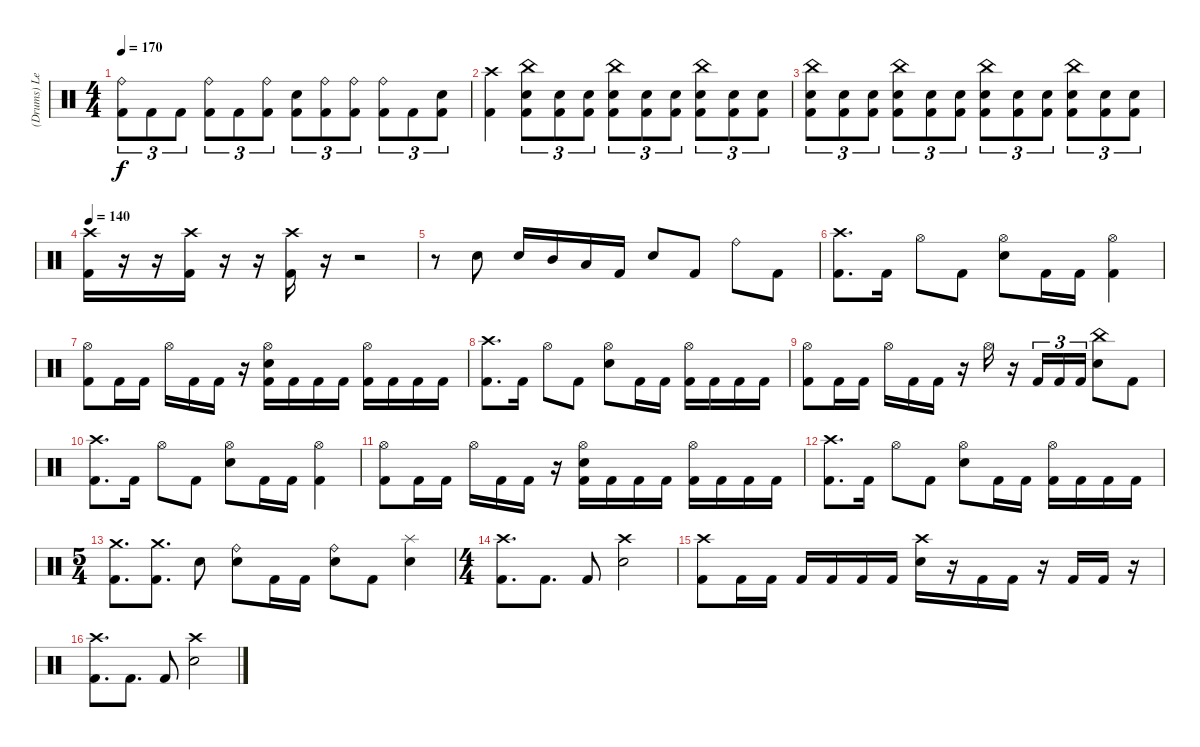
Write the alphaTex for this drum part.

\track ("(Drums) Leche" "(Drums) Le") {instrument percussion}
\staff {score}
\articulation defaults
\ts (4 4)
\tempo 170
\clef neutral
\ks c
("Ride (bell)" "Kick (hit) 2").8{tu (3 2) dy f} "Kick (hit) 2".8{tu (3 2)} "Kick (hit) 2".8{tu (3 2)} ("Ride (bell)" "Kick (hit) 2").8{tu (3 2)} "Kick (hit) 2".8{tu (3 2)} ("Ride (bell)" "Kick (hit) 2").8{tu (3 2)} ("Electric Snare (hit)" "Kick (hit) 2").8{tu (3 2)} ("Ride (bell)" "Kick (hit) 2").8{tu (3 2)} ("Ride (bell)" "Kick (hit) 2").8{tu (3 2)} ("Ride (bell)" "Kick (hit) 2").8{tu (3 2)} "Kick (hit) 2".8{tu (3 2)} ("Electric Snare (hit)" "Kick (hit) 2").8{tu (3 2)} |
("Crash high (hit)" "Kick (hit) 2").4 ("China (hit)" "Electric Snare (hit)" "Kick (hit) 2").8{tu (3 2)} ("Electric Snare (hit)" "Kick (hit) 2").8{tu (3 2)} ("Electric Snare (hit)" "Kick (hit) 2").8{tu (3 2)} ("China (hit)" "Electric Snare (hit)" "Kick (hit) 2").8{tu (3 2)} ("Electric Snare (hit)" "Kick (hit) 2").8{tu (3 2)} ("Electric Snare (hit)" "Kick (hit) 2").8{tu (3 2)} ("China (hit)" "Electric Snare (hit)" "Kick (hit) 2").8{tu (3 2)} ("Electric Snare (hit)" "Kick (hit) 2").8{tu (3 2)} ("Electric Snare (hit)" "Kick (hit) 2").8{tu (3 2)} |
("China (hit)" "Electric Snare (hit)" "Kick (hit) 2").8{tu (3 2)} ("Electric Snare (hit)" "Kick (hit) 2").8{tu (3 2)} ("Electric Snare (hit)" "Kick (hit) 2").8{tu (3 2)} ("China (hit)" "Electric Snare (hit)" "Kick (hit) 2").8{tu (3 2)} ("Electric Snare (hit)" "Kick (hit) 2").8{tu (3 2)} ("Electric Snare (hit)" "Kick (hit) 2").8{tu (3 2)} ("China (hit)" "Electric Snare (hit)" "Kick (hit) 2").8{tu (3 2)} ("Electric Snare (hit)" "Kick (hit) 2").8{tu (3 2)} ("Electric Snare (hit)" "Kick (hit) 2").8{tu (3 2)} ("China (hit)" "Electric Snare (hit)" "Kick (hit) 2").8{tu (3 2)} ("Electric Snare (hit)" "Kick (hit) 2").8{tu (3 2)} ("Electric Snare (hit)" "Kick (hit) 2").8{tu (3 2)} |
\tempo 150
\tempo 140
("Crash high (hit)" "Kick (hit) 2").16 r.16 r.16 ("Crash high (hit)" "Kick (hit) 2").16 r.16 r.16 ("Crash high (hit)" "Kick (hit) 2").16 r.16 r.2 |
r.8 "Electric Snare (hit)".8 "Electric Snare (hit)".16 "Mid Tom (hit)".16 "Low Tom (hit)".16 "Kick (hit) 2".16 "Electric Snare (hit)".8 "Kick (hit) 2".8 "Ride (bell)".8 "Kick (hit) 2".8 |
("Crash high (hit)" "Kick (hit) 2").8{d} "Kick (hit) 2".16 "Hi-Hat (open)".8 "Kick (hit) 2".8 ("Hi-Hat (open)" "Electric Snare (hit)").8 "Kick (hit) 2".16 "Kick (hit) 2".16 ("Hi-Hat (open)" "Kick (hit) 2").4 |
("Hi-Hat (open)" "Kick (hit) 2").8 "Kick (hit) 2".16 "Kick (hit) 2".16 "Hi-Hat (open)".16 "Kick (hit) 2".16 "Kick (hit) 2".16 r.16 ("Hi-Hat (open)" "Electric Snare (hit)" "Kick (hit) 2").16 "Kick (hit) 2".16 "Kick (hit) 2".16 "Kick (hit) 2".16 ("Hi-Hat (open)" "Kick (hit) 2").16 "Kick (hit) 2".16 "Kick (hit) 2".16 "Kick (hit) 2".16 |
("Crash high (hit)" "Kick (hit) 2").8{d} "Kick (hit) 2".16 "Hi-Hat (open)".8 "Kick (hit) 2".8 ("Hi-Hat (open)" "Electric Snare (hit)").8 "Kick (hit) 2".16 "Kick (hit) 2".16 ("Hi-Hat (open)" "Kick (hit) 2").16 "Kick (hit) 2".16 "Kick (hit) 2".16 "Kick (hit) 2".16 |
("Hi-Hat (open)" "Kick (hit) 2").8 "Kick (hit) 2".16 "Kick (hit) 2".16 "Hi-Hat (open)".16 "Kick (hit) 2".16 "Kick (hit) 2".16 r.16 "Hi-Hat (open)".16 r.16 "Kick (hit) 2".16{tu (3 2)} "Kick (hit) 2".16{tu (3 2)} "Kick (hit) 2".16{tu (3 2)} ("China (hit)" "Electric Snare (hit)").8 "Kick (hit) 2".8 |
("Crash high (hit)" "Kick (hit) 2").8{d} "Kick (hit) 2".16 "Hi-Hat (open)".8 "Kick (hit) 2".8 ("Hi-Hat (open)" "Electric Snare (hit)").8 "Kick (hit) 2".16 "Kick (hit) 2".16 ("Hi-Hat (open)" "Kick (hit) 2").4 |
("Hi-Hat (open)" "Kick (hit) 2").8 "Kick (hit) 2".16 "Kick (hit) 2".16 "Hi-Hat (open)".16 "Kick (hit) 2".16 "Kick (hit) 2".16 r.16 ("Hi-Hat (open)" "Electric Snare (hit)" "Kick (hit) 2").16 "Kick (hit) 2".16 "Kick (hit) 2".16 "Kick (hit) 2".16 ("Hi-Hat (open)" "Kick (hit) 2").16 "Kick (hit) 2".16 "Kick (hit) 2".16 "Kick (hit) 2".16 |
("Crash high (hit)" "Kick (hit) 2").8{d} "Kick (hit) 2".16 "Hi-Hat (open)".8 "Kick (hit) 2".8 ("Hi-Hat (open)" "Electric Snare (hit)").8 "Kick (hit) 2".16 "Kick (hit) 2".16 ("Hi-Hat (open)" "Kick (hit) 2").16 "Kick (hit) 2".16 "Kick (hit) 2".16 "Kick (hit) 2".16 |
\ts (5 4)
("Crash medium (hit)" "Kick (hit) 2").8{d} ("Crash medium (hit)" "Kick (hit) 2").8{d} "Electric Snare (hit)".8 ("Ride (bell)" "Electric Snare (hit)").8 "Kick (hit) 2".16 "Kick (hit) 2".16 ("Ride (bell)" "Electric Snare (hit)").8 "Kick (hit) 2".8 ("Splash (hit)" "Electric Snare (hit)").4 |
\ts (4 4)
("Crash high (hit)" "Kick (hit) 2").8{d} "Kick (hit) 2".8{d} "Kick (hit) 2".8 ("Crash high (hit)" "Electric Snare (hit)").2 |
("Crash high (hit)" "Kick (hit) 2").8 "Kick (hit) 2".16 "Kick (hit) 2".16 "Kick (hit) 2".16 "Kick (hit) 2".16 "Kick (hit) 2".16 "Kick (hit) 2".16 ("Crash high (hit)" "Electric Snare (hit)").16 r.16 "Kick (hit) 2".16 "Kick (hit) 2".16 r.16 "Kick (hit) 2".16 "Kick (hit) 2".16 r.16 |
("Crash high (hit)" "Kick (hit) 2").8{d} "Kick (hit) 2".8{d} "Kick (hit) 2".8 ("Crash high (hit)" "Electric Snare (hit)").2
